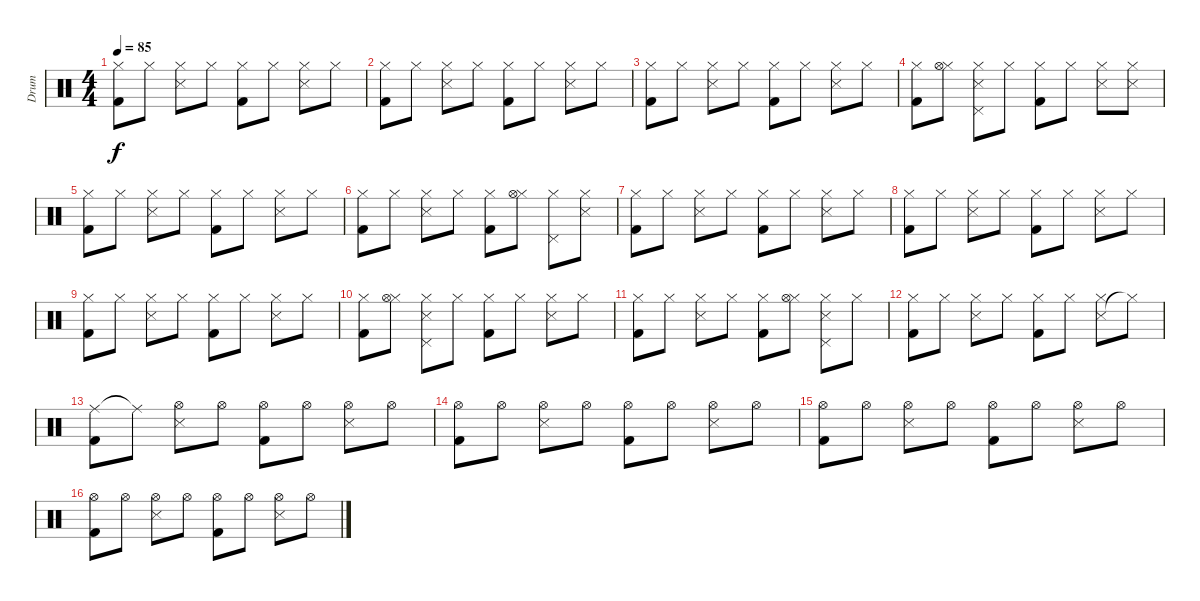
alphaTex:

\track ("Drum" "Drum") {instrument percussion}
\staff {score}
\articulation defaults
\ts (4 4)
\tempo 85
\clef neutral
\ks c
("Hi-Hat (closed)" "Kick (hit) 2").8{dy f} "Hi-Hat (closed)".8 ("Snare (side stick) 3" "Hi-Hat (closed)").8 "Hi-Hat (closed)".8 ("Hi-Hat (closed)" "Kick (hit) 2").8 "Hi-Hat (closed)".8 ("Snare (side stick) 3" "Hi-Hat (closed)").8 "Hi-Hat (closed)".8 |
("Hi-Hat (closed)" "Kick (hit) 2").8 "Hi-Hat (closed)".8 ("Snare (side stick) 3" "Hi-Hat (closed)").8 "Hi-Hat (closed)".8 ("Hi-Hat (closed)" "Kick (hit) 2").8 "Hi-Hat (closed)".8 ("Snare (side stick) 3" "Hi-Hat (closed)").8 "Hi-Hat (closed)".8 |
("Hi-Hat (closed)" "Kick (hit) 2").8 "Hi-Hat (closed)".8 ("Snare (side stick) 3" "Hi-Hat (closed)").8 "Hi-Hat (closed)".8 ("Hi-Hat (closed)" "Kick (hit) 2").8 "Hi-Hat (closed)".8 ("Snare (side stick) 3" "Hi-Hat (closed)").8 "Hi-Hat (closed)".8 |
("Hi-Hat (closed)" "Kick (hit) 2").8 ("Hi-Hat (closed)" "Hi-Hat (open)").8 ("Snare (side stick) 3" "Hi-Hat (closed)" "Pedal Hi-Hat (hit)").8 "Hi-Hat (closed)".8 ("Hi-Hat (closed)" "Kick (hit) 2").8 "Hi-Hat (closed)".8 ("Snare (side stick) 3" "Hi-Hat (closed)").8 ("Snare (side stick) 3" "Hi-Hat (closed)").8 |
("Hi-Hat (closed)" "Kick (hit) 2").8 "Hi-Hat (closed)".8 ("Snare (side stick) 3" "Hi-Hat (closed)").8 "Hi-Hat (closed)".8 ("Hi-Hat (closed)" "Kick (hit) 2").8 "Hi-Hat (closed)".8 ("Snare (side stick) 3" "Hi-Hat (closed)").8 "Hi-Hat (closed)".8 |
("Hi-Hat (closed)" "Kick (hit) 2").8 "Hi-Hat (closed)".8 ("Snare (side stick) 3" "Hi-Hat (closed)").8 "Hi-Hat (closed)".8 ("Hi-Hat (closed)" "Kick (hit) 2").8 ("Hi-Hat (closed)" "Hi-Hat (open)").8 ("Hi-Hat (closed)" "Pedal Hi-Hat (hit)").8 ("Snare (side stick) 3" "Hi-Hat (closed)").8 |
("Hi-Hat (closed)" "Kick (hit) 2").8 "Hi-Hat (closed)".8 ("Snare (side stick) 3" "Hi-Hat (closed)").8 "Hi-Hat (closed)".8 ("Hi-Hat (closed)" "Kick (hit) 2").8 "Hi-Hat (closed)".8 ("Snare (side stick) 3" "Hi-Hat (closed)").8 "Hi-Hat (closed)".8 |
("Hi-Hat (closed)" "Kick (hit) 2").8 "Hi-Hat (closed)".8 ("Snare (side stick) 3" "Hi-Hat (closed)").8 "Hi-Hat (closed)".8 ("Hi-Hat (closed)" "Kick (hit) 2").8 "Hi-Hat (closed)".8 ("Snare (side stick) 3" "Hi-Hat (closed)").8 "Hi-Hat (closed)".8 |
("Hi-Hat (closed)" "Kick (hit) 2").8 "Hi-Hat (closed)".8 ("Snare (side stick) 3" "Hi-Hat (closed)").8 "Hi-Hat (closed)".8 ("Hi-Hat (closed)" "Kick (hit) 2").8 "Hi-Hat (closed)".8 ("Snare (side stick) 3" "Hi-Hat (closed)").8 "Hi-Hat (closed)".8 |
("Hi-Hat (closed)" "Kick (hit) 2").8 ("Hi-Hat (closed)" "Hi-Hat (open)").8 ("Snare (side stick) 3" "Hi-Hat (closed)" "Pedal Hi-Hat (hit)").8 "Hi-Hat (closed)".8 ("Hi-Hat (closed)" "Kick (hit) 2").8 "Hi-Hat (closed)".8 ("Snare (side stick) 3" "Hi-Hat (closed)").8 "Hi-Hat (closed)".8 |
("Hi-Hat (closed)" "Kick (hit) 2").8 "Hi-Hat (closed)".8 ("Snare (side stick) 3" "Hi-Hat (closed)").8 "Hi-Hat (closed)".8 ("Hi-Hat (closed)" "Kick (hit) 2").8 ("Hi-Hat (closed)" "Hi-Hat (open)").8 ("Snare (side stick) 3" "Hi-Hat (closed)" "Pedal Hi-Hat (hit)").8 "Hi-Hat (closed)".8 |
("Hi-Hat (closed)" "Kick (hit) 2").8 "Hi-Hat (closed)".8 ("Snare (side stick) 3" "Hi-Hat (closed)").8 "Hi-Hat (closed)".8 ("Hi-Hat (closed)" "Kick (hit) 2").8 "Hi-Hat (closed)".8 ("Snare (side stick) 3" "Hi-Hat (closed)").8 "Hi-Hat (closed)"{t}.8 |
("Ride (middle)" "Kick (hit) 2").8 "Ride (middle)"{t}.8 ("Snare (side stick) 3" "Hi-Hat (open)").8 "Hi-Hat (open)".8 ("Hi-Hat (open)" "Kick (hit) 2").8 "Hi-Hat (open)".8 ("Snare (side stick) 3" "Hi-Hat (open)").8 "Hi-Hat (open)".8 |
("Hi-Hat (open)" "Kick (hit) 2").8 "Hi-Hat (open)".8 ("Snare (side stick) 3" "Hi-Hat (open)").8 "Hi-Hat (open)".8 ("Hi-Hat (open)" "Kick (hit) 2").8 "Hi-Hat (open)".8 ("Snare (side stick) 3" "Hi-Hat (open)").8 "Hi-Hat (open)".8 |
("Hi-Hat (open)" "Kick (hit) 2").8 "Hi-Hat (open)".8 ("Snare (side stick) 3" "Hi-Hat (open)").8 "Hi-Hat (open)".8 ("Hi-Hat (open)" "Kick (hit) 2").8 "Hi-Hat (open)".8 ("Snare (side stick) 3" "Hi-Hat (open)").8 "Hi-Hat (open)".8 |
("Hi-Hat (open)" "Kick (hit) 2").8 "Hi-Hat (open)".8 ("Snare (side stick) 3" "Hi-Hat (open)").8 "Hi-Hat (open)".8 ("Hi-Hat (open)" "Kick (hit) 2").8 "Hi-Hat (open)".8 ("Snare (side stick) 3" "Hi-Hat (open)").8 "Hi-Hat (open)".8
